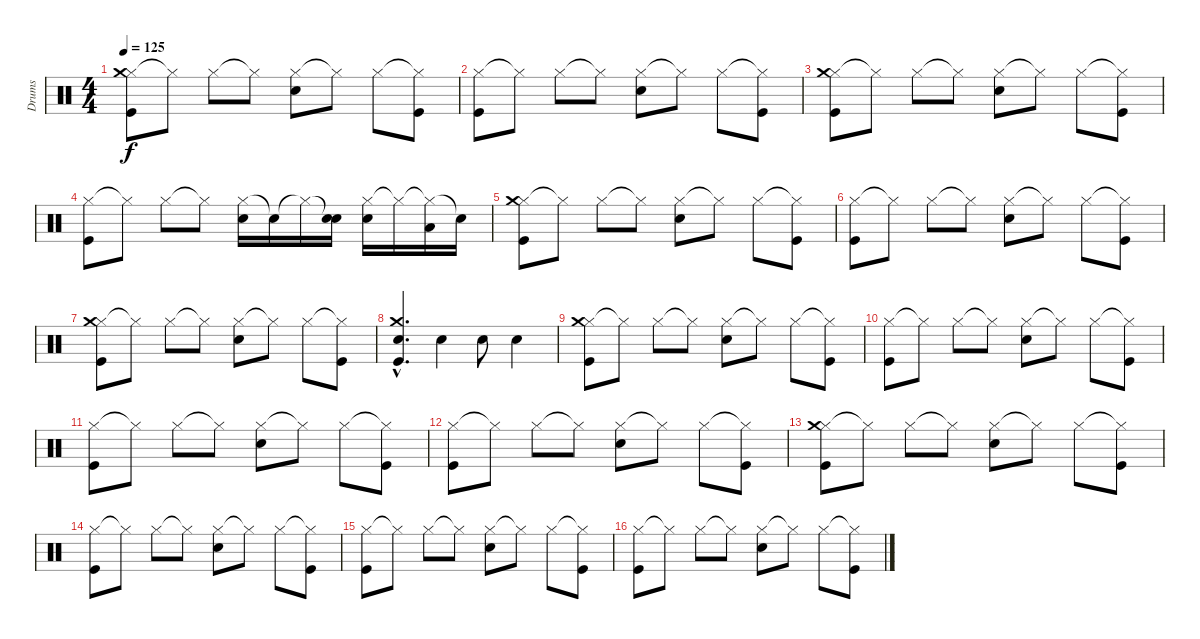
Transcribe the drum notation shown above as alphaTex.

\track ("Drums" "Drums") {instrument percussion}
\staff {score}
\articulation defaults
\ts (4 4)
\tempo 125
\clef neutral
\ks c
("Hi-Hat (closed)" "Kick (hit)" "Crash medium (hit)").8{dy f} "Hi-Hat (closed)"{t}.8 "Hi-Hat (closed)".8 "Hi-Hat (closed)"{t}.8 ("Hi-Hat (closed)" "Snare (hit) 2").8 "Hi-Hat (closed)"{t}.8 "Hi-Hat (closed)".8 ("Hi-Hat (closed)"{t} "Kick (hit)").8 |
("Hi-Hat (closed)" "Kick (hit)").8 "Hi-Hat (closed)"{t}.8 "Hi-Hat (closed)".8 "Hi-Hat (closed)"{t}.8 ("Hi-Hat (closed)" "Snare (hit) 2").8 "Hi-Hat (closed)"{t}.8 "Hi-Hat (closed)".8 ("Hi-Hat (closed)"{t} "Kick (hit)").8 |
("Hi-Hat (closed)" "Kick (hit)" "Crash medium (hit)").8 "Hi-Hat (closed)"{t}.8 "Hi-Hat (closed)".8 "Hi-Hat (closed)"{t}.8 ("Hi-Hat (closed)" "Snare (hit) 2").8 "Hi-Hat (closed)"{t}.8 "Hi-Hat (closed)".8 ("Hi-Hat (closed)"{t} "Kick (hit)").8 |
("Hi-Hat (closed)" "Kick (hit)").8 "Hi-Hat (closed)"{t}.8 "Hi-Hat (closed)".8 "Hi-Hat (closed)"{t}.8 ("Hi-Hat (closed)" "Snare (hit) 2").16 "Snare (hit)"{t}.16 "Hi-Hat (closed)"{t}.16 ("Snare (hit)"{t} "Snare (hit) 2").16 ("Hi-Hat (closed)" "Snare (hit) 2").16 "Hi-Hat (closed)"{t}.16 ("Hi-Hat (closed)"{t} "Low Tom (hit)").16 "Snare (hit)"{t}.16 |
("Hi-Hat (closed)" "Kick (hit)" "Crash medium (hit)").8 "Hi-Hat (closed)"{t}.8 "Hi-Hat (closed)".8 "Hi-Hat (closed)"{t}.8 ("Hi-Hat (closed)" "Snare (hit) 2").8 "Hi-Hat (closed)"{t}.8 "Hi-Hat (closed)".8 ("Hi-Hat (closed)"{t} "Kick (hit)").8 |
("Hi-Hat (closed)" "Kick (hit)").8 "Hi-Hat (closed)"{t}.8 "Hi-Hat (closed)".8 "Hi-Hat (closed)"{t}.8 ("Hi-Hat (closed)" "Snare (hit) 2").8 "Hi-Hat (closed)"{t}.8 "Hi-Hat (closed)".8 ("Hi-Hat (closed)"{t} "Kick (hit)").8 |
("Hi-Hat (closed)" "Kick (hit)" "Crash medium (hit)").8 "Hi-Hat (closed)"{t}.8 "Hi-Hat (closed)".8 "Hi-Hat (closed)"{t}.8 ("Hi-Hat (closed)" "Snare (hit) 2").8 "Hi-Hat (closed)"{t}.8 "Hi-Hat (closed)".8 ("Hi-Hat (closed)"{t} "Kick (hit)").8 |
("Crash medium (hit)"{hac} "Snare (hit) 2"{hac} "Kick (hit)"{hac}).4{d} "Snare (hit) 2".4 "Snare (hit) 2".8 "Snare (hit) 2".4 |
("Hi-Hat (closed)" "Kick (hit)" "Crash medium (hit)").8 "Hi-Hat (closed)"{t}.8 "Hi-Hat (closed)".8 "Hi-Hat (closed)"{t}.8 ("Hi-Hat (closed)" "Snare (hit) 2").8 "Hi-Hat (closed)"{t}.8 "Hi-Hat (closed)".8 ("Hi-Hat (closed)"{t} "Kick (hit)").8 |
("Hi-Hat (closed)" "Kick (hit)").8 "Hi-Hat (closed)"{t}.8 "Hi-Hat (closed)".8 "Hi-Hat (closed)"{t}.8 ("Hi-Hat (closed)" "Snare (hit) 2").8 "Hi-Hat (closed)"{t}.8 "Hi-Hat (closed)".8 ("Hi-Hat (closed)"{t} "Kick (hit)").8 |
("Hi-Hat (closed)" "Kick (hit)").8 "Hi-Hat (closed)"{t}.8 "Hi-Hat (closed)".8 "Hi-Hat (closed)"{t}.8 ("Hi-Hat (closed)" "Snare (hit) 2").8 "Hi-Hat (closed)"{t}.8 "Hi-Hat (closed)".8 ("Hi-Hat (closed)"{t} "Kick (hit)").8 |
("Hi-Hat (closed)" "Kick (hit)").8 "Hi-Hat (closed)"{t}.8 "Hi-Hat (closed)".8 "Hi-Hat (closed)"{t}.8 ("Hi-Hat (closed)" "Snare (hit) 2").8 "Hi-Hat (closed)"{t}.8 "Hi-Hat (closed)".8 ("Hi-Hat (closed)"{t} "Kick (hit)").8 |
("Hi-Hat (closed)" "Kick (hit)" "Crash medium (hit)").8 "Hi-Hat (closed)"{t}.8 "Hi-Hat (closed)".8 "Hi-Hat (closed)"{t}.8 ("Hi-Hat (closed)" "Snare (hit) 2").8 "Hi-Hat (closed)"{t}.8 "Hi-Hat (closed)".8 ("Hi-Hat (closed)"{t} "Kick (hit)").8 |
("Hi-Hat (closed)" "Kick (hit)").8 "Hi-Hat (closed)"{t}.8 "Hi-Hat (closed)".8 "Hi-Hat (closed)"{t}.8 ("Hi-Hat (closed)" "Snare (hit) 2").8 "Hi-Hat (closed)"{t}.8 "Hi-Hat (closed)".8 ("Hi-Hat (closed)"{t} "Kick (hit)").8 |
("Hi-Hat (closed)" "Kick (hit)").8 "Hi-Hat (closed)"{t}.8 "Hi-Hat (closed)".8 "Hi-Hat (closed)"{t}.8 ("Hi-Hat (closed)" "Snare (hit) 2").8 "Hi-Hat (closed)"{t}.8 "Hi-Hat (closed)".8 ("Hi-Hat (closed)"{t} "Kick (hit)").8 |
("Hi-Hat (closed)" "Kick (hit)").8 "Hi-Hat (closed)"{t}.8 "Hi-Hat (closed)".8 "Hi-Hat (closed)"{t}.8 ("Hi-Hat (closed)" "Snare (hit) 2").8 "Hi-Hat (closed)"{t}.8 "Hi-Hat (closed)".8 ("Hi-Hat (closed)"{t} "Kick (hit)").8
